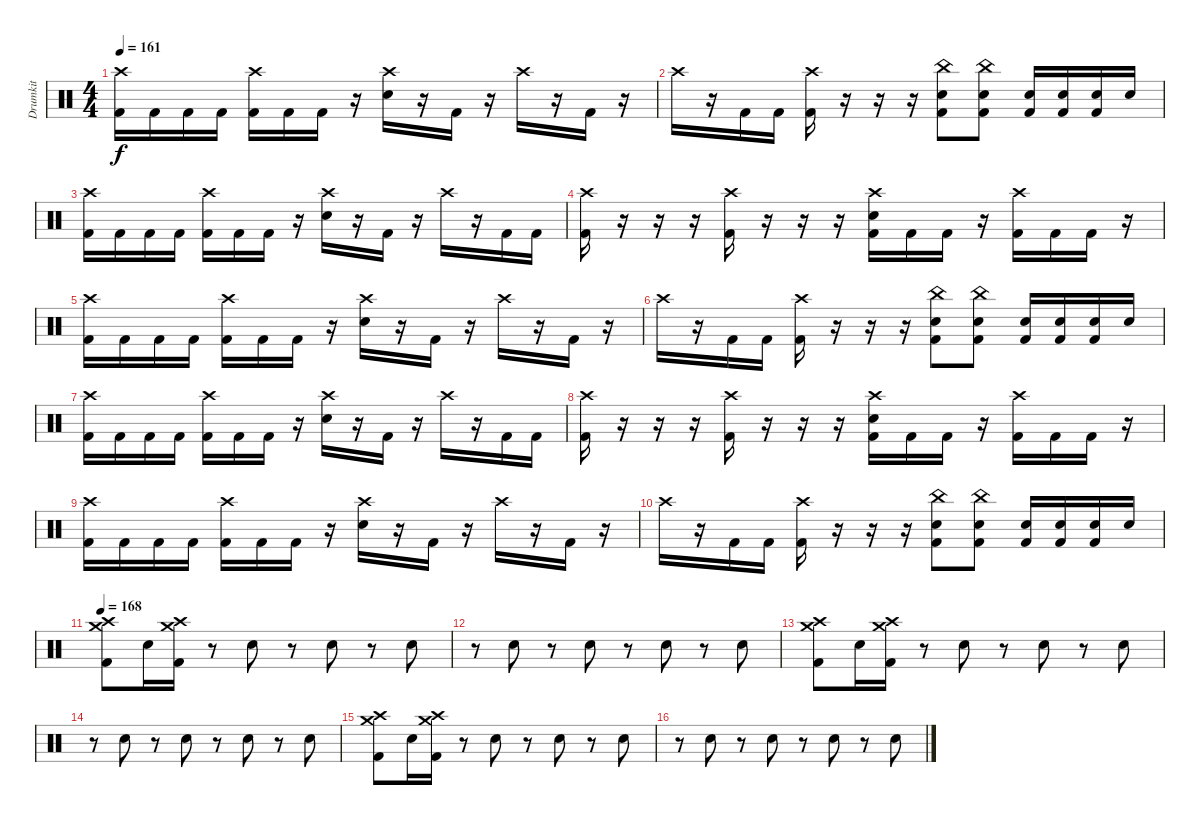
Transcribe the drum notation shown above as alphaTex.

\track ("Drumkit" "Drumkit") {instrument percussion}
\staff {score}
\articulation defaults
\ts (4 4)
\tempo 161
\clef neutral
\ks c
("Crash high (hit)" "Kick (hit) 2").16{dy f} "Kick (hit) 2".16 "Kick (hit) 2".16 "Kick (hit) 2".16 ("Crash high (hit)" "Kick (hit) 2").16 "Kick (hit) 2".16 "Kick (hit) 2".16 r.16 ("Crash high (hit)" "Snare (hit) 2").16 r.16 "Kick (hit) 2".16 r.16 "Crash high (hit)".16 r.16 "Kick (hit) 2".16 r.16 |
"Crash high (hit)".16 r.16 "Kick (hit) 2".16 "Kick (hit) 2".16 ("Crash high (hit)" "Kick (hit) 2").16 r.16 r.16 r.16 ("China (hit)" "Snare (hit) 2" "Kick (hit) 2").8 ("China (hit)" "Snare (hit) 2" "Kick (hit) 2").8 ("Snare (hit) 2" "Kick (hit) 2").16 ("Snare (hit) 2" "Kick (hit) 2").16 ("Snare (hit) 2" "Kick (hit) 2").16 "Snare (hit) 2".16 |
("Crash high (hit)" "Kick (hit) 2").16 "Kick (hit) 2".16 "Kick (hit) 2".16 "Kick (hit) 2".16 ("Crash high (hit)" "Kick (hit) 2").16 "Kick (hit) 2".16 "Kick (hit) 2".16 r.16 ("Crash high (hit)" "Snare (hit) 2").16 r.16 "Kick (hit) 2".16 r.16 "Crash high (hit)".16 r.16 "Kick (hit) 2".16 "Kick (hit) 2".16 |
("Crash high (hit)" "Kick (hit) 2").16 r.16 r.16 r.16 ("Crash high (hit)" "Kick (hit) 2").16 r.16 r.16 r.16 ("Crash high (hit)" "Snare (hit) 2" "Kick (hit) 2").16 "Kick (hit) 2".16 "Kick (hit) 2".16 r.16 ("Crash high (hit)" "Kick (hit) 2").16 "Kick (hit) 2".16 "Kick (hit) 2".16 r.16 |
("Crash high (hit)" "Kick (hit) 2").16 "Kick (hit) 2".16 "Kick (hit) 2".16 "Kick (hit) 2".16 ("Crash high (hit)" "Kick (hit) 2").16 "Kick (hit) 2".16 "Kick (hit) 2".16 r.16 ("Crash high (hit)" "Snare (hit) 2").16 r.16 "Kick (hit) 2".16 r.16 "Crash high (hit)".16 r.16 "Kick (hit) 2".16 r.16 |
"Crash high (hit)".16 r.16 "Kick (hit) 2".16 "Kick (hit) 2".16 ("Crash high (hit)" "Kick (hit) 2").16 r.16 r.16 r.16 ("China (hit)" "Snare (hit) 2" "Kick (hit) 2").8 ("China (hit)" "Snare (hit) 2" "Kick (hit) 2").8 ("Snare (hit) 2" "Kick (hit) 2").16 ("Snare (hit) 2" "Kick (hit) 2").16 ("Snare (hit) 2" "Kick (hit) 2").16 "Snare (hit) 2".16 |
("Crash high (hit)" "Kick (hit) 2").16 "Kick (hit) 2".16 "Kick (hit) 2".16 "Kick (hit) 2".16 ("Crash high (hit)" "Kick (hit) 2").16 "Kick (hit) 2".16 "Kick (hit) 2".16 r.16 ("Crash high (hit)" "Snare (hit) 2").16 r.16 "Kick (hit) 2".16 r.16 "Crash high (hit)".16 r.16 "Kick (hit) 2".16 "Kick (hit) 2".16 |
("Crash high (hit)" "Kick (hit) 2").16 r.16 r.16 r.16 ("Crash high (hit)" "Kick (hit) 2").16 r.16 r.16 r.16 ("Crash high (hit)" "Snare (hit) 2" "Kick (hit) 2").16 "Kick (hit) 2".16 "Kick (hit) 2".16 r.16 ("Crash high (hit)" "Kick (hit) 2").16 "Kick (hit) 2".16 "Kick (hit) 2".16 r.16 |
("Crash high (hit)" "Kick (hit) 2").16 "Kick (hit) 2".16 "Kick (hit) 2".16 "Kick (hit) 2".16 ("Crash high (hit)" "Kick (hit) 2").16 "Kick (hit) 2".16 "Kick (hit) 2".16 r.16 ("Crash high (hit)" "Snare (hit) 2").16 r.16 "Kick (hit) 2".16 r.16 "Crash high (hit)".16 r.16 "Kick (hit) 2".16 r.16 |
"Crash high (hit)".16 r.16 "Kick (hit) 2".16 "Kick (hit) 2".16 ("Crash high (hit)" "Kick (hit) 2").16 r.16 r.16 r.16 ("China (hit)" "Snare (hit) 2" "Kick (hit) 2").8 ("China (hit)" "Snare (hit) 2" "Kick (hit) 2").8 ("Snare (hit) 2" "Kick (hit) 2").16 ("Snare (hit) 2" "Kick (hit) 2").16 ("Snare (hit) 2" "Kick (hit) 2").16 "Snare (hit) 2".16 |
\tempo 168
("Crash high (hit)" "Crash medium (hit)" "Kick (hit) 2").8 "Snare (hit) 2".16 ("Crash medium (hit)" "Crash high (hit)" "Kick (hit) 2").16 r.8 "Snare (hit) 2".8 r.8 "Snare (hit) 2".8 r.8 "Snare (hit) 2".8 |
r.8 "Snare (hit) 2".8 r.8 "Snare (hit) 2".8 r.8 "Snare (hit) 2".8 r.8 "Snare (hit) 2".8 |
("Crash high (hit)" "Crash medium (hit)" "Kick (hit) 2").8 "Snare (hit) 2".16 ("Crash medium (hit)" "Crash high (hit)" "Kick (hit) 2").16 r.8 "Snare (hit) 2".8 r.8 "Snare (hit) 2".8 r.8 "Snare (hit) 2".8 |
r.8 "Snare (hit) 2".8 r.8 "Snare (hit) 2".8 r.8 "Snare (hit) 2".8 r.8 "Snare (hit) 2".8 |
("Crash high (hit)" "Crash medium (hit)" "Kick (hit) 2").8 "Snare (hit) 2".16 ("Crash medium (hit)" "Crash high (hit)" "Kick (hit) 2").16 r.8 "Snare (hit) 2".8 r.8 "Snare (hit) 2".8 r.8 "Snare (hit) 2".8 |
r.8 "Snare (hit) 2".8 r.8 "Snare (hit) 2".8 r.8 "Snare (hit) 2".8 r.8 "Snare (hit) 2".8
